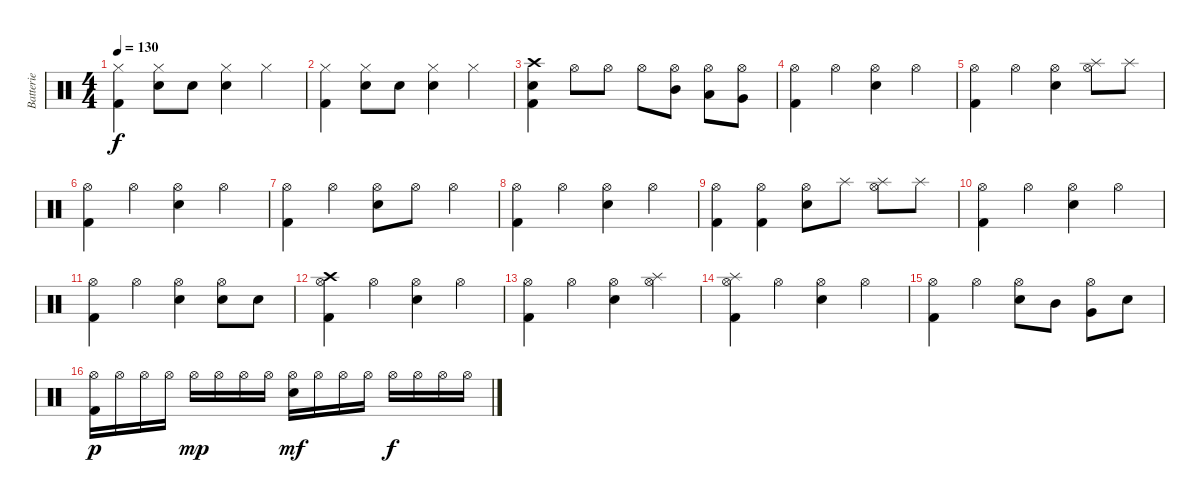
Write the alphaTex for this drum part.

\track ("Batterie" "Batterie") {instrument percussion}
\staff {score}
\articulation defaults
\ts (4 4)
\tempo 130
\clef neutral
\ks c
("Hi-Hat (closed)" "Kick (hit) 2").4{dy f} ("Hi-Hat (closed)" "Metronome (bell)").8 "Metronome (bell)".8 ("Hi-Hat (closed)" "Electric Snare (hit)").4 "Hi-Hat (closed)".4 |
("Hi-Hat (closed)" "Kick (hit) 2").4 ("Hi-Hat (closed)" "Metronome (bell)").8 "Metronome (bell)".8 ("Hi-Hat (closed)" "Electric Snare (hit)").4 "Hi-Hat (closed)".4 |
("Crash high (hit)" "Electric Snare (hit)" "Kick (hit) 2").4 "Hi-Hat (open)".8 "Hi-Hat (open)".8 "Hi-Hat (open)".8 ("Hi-Hat (open)" "Mid Tom (hit)").8 ("Hi-Hat (open)" "Low Tom (hit)").8 ("Hi-Hat (open)" "Very Low Tom (hit)").8 |
("Hi-Hat (open)" "Kick (hit) 2").4 "Hi-Hat (open)".4 ("Hi-Hat (open)" "Electric Snare (hit)").4 "Hi-Hat (open)".4 |
("Hi-Hat (open)" "Kick (hit) 2").4 "Hi-Hat (open)".4 ("Hi-Hat (open)" "Electric Snare (hit)").4 ("Hi-Hat (open)" "Splash (hit)").8 "Splash (hit)".8 |
("Hi-Hat (open)" "Kick (hit) 2").4 "Hi-Hat (open)".4 ("Hi-Hat (open)" "Electric Snare (hit)").4 "Hi-Hat (open)".4 |
("Hi-Hat (open)" "Kick (hit) 2").4 "Hi-Hat (open)".4 ("Hi-Hat (open)" "Electric Snare (hit)").8 "Hi-Hat (open)".8 "Hi-Hat (open)".4 |
("Hi-Hat (open)" "Kick (hit) 2").4 "Hi-Hat (open)".4 ("Hi-Hat (open)" "Electric Snare (hit)").4 "Hi-Hat (open)".4 |
("Hi-Hat (open)" "Kick (hit) 2").4 ("Hi-Hat (open)" "Kick (hit) 2").4 ("Hi-Hat (open)" "Electric Snare (hit)").8 "Splash (hit)".8 ("Hi-Hat (open)" "Splash (hit)").8 "Splash (hit)".8 |
("Hi-Hat (open)" "Kick (hit) 2").4 "Hi-Hat (open)".4 ("Hi-Hat (open)" "Electric Snare (hit)").4 "Hi-Hat (open)".4 |
("Hi-Hat (open)" "Kick (hit) 2").4 "Hi-Hat (open)".4 ("Hi-Hat (open)" "Electric Snare (hit)").4 ("Hi-Hat (open)" "Electric Snare (hit)").8 "Electric Snare (hit)".8 |
("Crash high (hit)" "Hi-Hat (open)" "Kick (hit) 2").4 "Hi-Hat (open)".4 ("Hi-Hat (open)" "Electric Snare (hit)").4 "Hi-Hat (open)".4 |
("Hi-Hat (open)" "Kick (hit) 2").4 "Hi-Hat (open)".4 ("Hi-Hat (open)" "Electric Snare (hit)").4 ("Hi-Hat (open)" "Splash (hit)").4 |
("Hi-Hat (open)" "Splash (hit)" "Kick (hit) 2").4 "Hi-Hat (open)".4 ("Hi-Hat (open)" "Electric Snare (hit)").4 "Hi-Hat (open)".4 |
("Hi-Hat (open)" "Kick (hit) 2").4 "Hi-Hat (open)".4 ("Hi-Hat (open)" "Electric Snare (hit)").8 "Mid Tom (hit)".8 ("Hi-Hat (open)" "Very Low Tom (hit)").8 "Electric Snare (hit)".8 |
("Hi-Hat (open)" "Kick (hit) 2").16{dy p} "Hi-Hat (open)".16 "Hi-Hat (open)".16 "Hi-Hat (open)".16 "Hi-Hat (open)".16{dy mp} "Hi-Hat (open)".16 "Hi-Hat (open)".16 "Hi-Hat (open)".16 ("Hi-Hat (open)" "Electric Snare (hit)").16{dy mf} "Hi-Hat (open)".16 "Hi-Hat (open)".16 "Hi-Hat (open)".16 "Hi-Hat (open)".16{dy f} "Hi-Hat (open)".16 "Hi-Hat (open)".16 "Hi-Hat (open)".16
